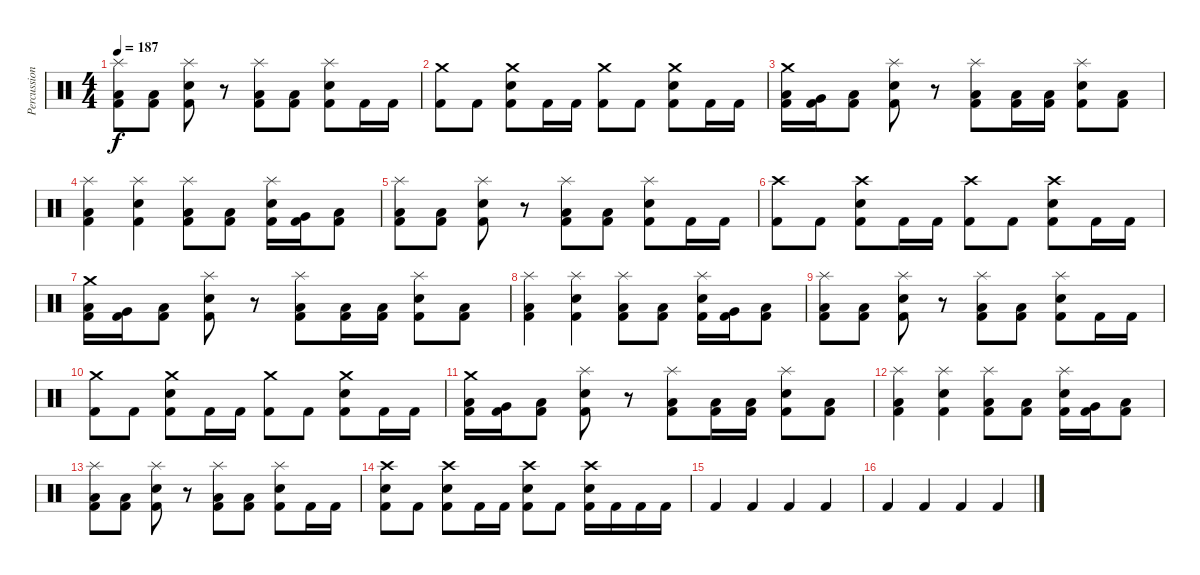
\track ("Percussion" "Percussion") {instrument percussion}
\staff {score}
\articulation defaults
\ts (4 4)
\tempo 187
\clef neutral
\ks c
("Splash (hit)" "Low Tom (hit)" "Kick (hit) 2").8{dy f} ("Low Floor Tom (hit)" "Kick (hit) 2").8 ("Splash (hit)" "Electric Snare (hit)" "Kick (hit) 2").8 r.8 ("Splash (hit)" "Low Floor Tom (hit)" "Kick (hit) 2").8 ("Low Floor Tom (hit)" "Kick (hit) 2").8 ("Splash (hit)" "Electric Snare (hit)" "Kick (hit) 2").8 "Kick (hit) 2".16 "Kick (hit) 2".16 |
("Crash medium (hit)" "Kick (hit) 2").8 "Kick (hit) 2".8 ("Crash medium (hit)" "Electric Snare (hit)" "Kick (hit) 2").8 "Kick (hit) 2".16 "Kick (hit) 2".16 ("Crash medium (hit)" "Kick (hit) 2").8 "Kick (hit) 2".8 ("Crash medium (hit)" "Electric Snare (hit)" "Kick (hit) 2").8 "Kick (hit) 2".16 "Kick (hit) 2".16 |
("Crash medium (hit)" "Low Tom (hit)" "Kick (hit) 2").16 ("Very Low Tom (hit)" "Kick (hit) 2").16 ("Low Floor Tom (hit)" "Kick (hit) 2").8 ("Splash (hit)" "Electric Snare (hit)" "Kick (hit) 2").8 r.8 ("Splash (hit)" "Low Floor Tom (hit)" "Kick (hit) 2").8 ("Low Floor Tom (hit)" "Kick (hit) 2").16 ("Low Floor Tom (hit)" "Kick (hit) 2").16 ("Splash (hit)" "Electric Snare (hit)" "Kick (hit) 2").8 ("Low Floor Tom (hit)" "Kick (hit) 2").8 |
("Splash (hit)" "Low Floor Tom (hit)" "Kick (hit) 2").4 ("Splash (hit)" "Electric Snare (hit)" "Kick (hit) 2").4 ("Splash (hit)" "Low Floor Tom (hit)" "Kick (hit) 2").8 ("Low Floor Tom (hit)" "Kick (hit) 2").8 ("Splash (hit)" "Electric Snare (hit)" "Kick (hit) 2").16 ("Very Low Tom (hit)" "Kick (hit) 2").16 ("Low Floor Tom (hit)" "Kick (hit) 2").8 |
("Splash (hit)" "Low Tom (hit)" "Kick (hit) 2").8 ("Low Floor Tom (hit)" "Kick (hit) 2").8 ("Splash (hit)" "Electric Snare (hit)" "Kick (hit) 2").8 r.8 ("Splash (hit)" "Low Floor Tom (hit)" "Kick (hit) 2").8 ("Low Floor Tom (hit)" "Kick (hit) 2").8 ("Splash (hit)" "Electric Snare (hit)" "Kick (hit) 2").8 "Kick (hit) 2".16 "Kick (hit) 2".16 |
("Crash high (hit)" "Kick (hit) 2").8 "Kick (hit) 2".8 ("Crash high (hit)" "Electric Snare (hit)" "Kick (hit) 2").8 "Kick (hit) 2".16 "Kick (hit) 2".16 ("Crash high (hit)" "Kick (hit) 2").8 "Kick (hit) 2".8 ("Crash high (hit)" "Electric Snare (hit)" "Kick (hit) 2").8 "Kick (hit) 2".16 "Kick (hit) 2".16 |
("Crash medium (hit)" "Low Tom (hit)" "Kick (hit) 2").16 ("Very Low Tom (hit)" "Kick (hit) 2").16 ("Low Floor Tom (hit)" "Kick (hit) 2").8 ("Splash (hit)" "Electric Snare (hit)" "Kick (hit) 2").8 r.8 ("Splash (hit)" "Low Floor Tom (hit)" "Kick (hit) 2").8 ("Low Floor Tom (hit)" "Kick (hit) 2").16 ("Low Floor Tom (hit)" "Kick (hit) 2").16 ("Splash (hit)" "Electric Snare (hit)" "Kick (hit) 2").8 ("Low Floor Tom (hit)" "Kick (hit) 2").8 |
("Splash (hit)" "Low Floor Tom (hit)" "Kick (hit) 2").4 ("Splash (hit)" "Electric Snare (hit)" "Kick (hit) 2").4 ("Splash (hit)" "Low Floor Tom (hit)" "Kick (hit) 2").8 ("Low Floor Tom (hit)" "Kick (hit) 2").8 ("Splash (hit)" "Electric Snare (hit)" "Kick (hit) 2").16 ("Very Low Tom (hit)" "Kick (hit) 2").16 ("Low Floor Tom (hit)" "Kick (hit) 2").8 |
("Splash (hit)" "Low Tom (hit)" "Kick (hit) 2").8 ("Low Floor Tom (hit)" "Kick (hit) 2").8 ("Splash (hit)" "Electric Snare (hit)" "Kick (hit) 2").8 r.8 ("Splash (hit)" "Low Floor Tom (hit)" "Kick (hit) 2").8 ("Low Floor Tom (hit)" "Kick (hit) 2").8 ("Splash (hit)" "Electric Snare (hit)" "Kick (hit) 2").8 "Kick (hit) 2".16 "Kick (hit) 2".16 |
("Crash medium (hit)" "Kick (hit) 2").8 "Kick (hit) 2".8 ("Crash medium (hit)" "Electric Snare (hit)" "Kick (hit) 2").8 "Kick (hit) 2".16 "Kick (hit) 2".16 ("Crash medium (hit)" "Kick (hit) 2").8 "Kick (hit) 2".8 ("Crash medium (hit)" "Electric Snare (hit)" "Kick (hit) 2").8 "Kick (hit) 2".16 "Kick (hit) 2".16 |
("Crash medium (hit)" "Low Tom (hit)" "Kick (hit) 2").16 ("Very Low Tom (hit)" "Kick (hit) 2").16 ("Low Floor Tom (hit)" "Kick (hit) 2").8 ("Splash (hit)" "Electric Snare (hit)" "Kick (hit) 2").8 r.8 ("Splash (hit)" "Low Floor Tom (hit)" "Kick (hit) 2").8 ("Low Floor Tom (hit)" "Kick (hit) 2").16 ("Low Floor Tom (hit)" "Kick (hit) 2").16 ("Splash (hit)" "Electric Snare (hit)" "Kick (hit) 2").8 ("Low Floor Tom (hit)" "Kick (hit) 2").8 |
("Splash (hit)" "Low Floor Tom (hit)" "Kick (hit) 2").4 ("Splash (hit)" "Electric Snare (hit)" "Kick (hit) 2").4 ("Splash (hit)" "Low Floor Tom (hit)" "Kick (hit) 2").8 ("Low Floor Tom (hit)" "Kick (hit) 2").8 ("Splash (hit)" "Electric Snare (hit)" "Kick (hit) 2").16 ("Very Low Tom (hit)" "Kick (hit) 2").16 ("Low Floor Tom (hit)" "Kick (hit) 2").8 |
("Splash (hit)" "Low Tom (hit)" "Kick (hit) 2").8 ("Low Floor Tom (hit)" "Kick (hit) 2").8 ("Splash (hit)" "Electric Snare (hit)" "Kick (hit) 2").8 r.8 ("Splash (hit)" "Low Floor Tom (hit)" "Kick (hit) 2").8 ("Low Floor Tom (hit)" "Kick (hit) 2").8 ("Splash (hit)" "Electric Snare (hit)" "Kick (hit) 2").8 "Kick (hit) 2".16 "Kick (hit) 2".16 |
("Crash high (hit)" "Electric Snare (hit)" "Kick (hit) 2").8 "Kick (hit) 2".8 ("Crash high (hit)" "Electric Snare (hit)" "Kick (hit) 2").8 "Kick (hit) 2".16 "Kick (hit) 2".16 ("Crash high (hit)" "Electric Snare (hit)" "Kick (hit) 2").8 "Kick (hit) 2".8 ("Crash high (hit)" "Electric Snare (hit)" "Kick (hit) 2").16 "Kick (hit) 2".16 "Kick (hit) 2".16 "Kick (hit) 2".16 |
"Kick (hit) 2".4{volume 9} "Kick (hit) 2".4 "Kick (hit) 2".4 "Kick (hit) 2".4 |
"Kick (hit) 2".4 "Kick (hit) 2".4 "Kick (hit) 2".4 "Kick (hit) 2".4
